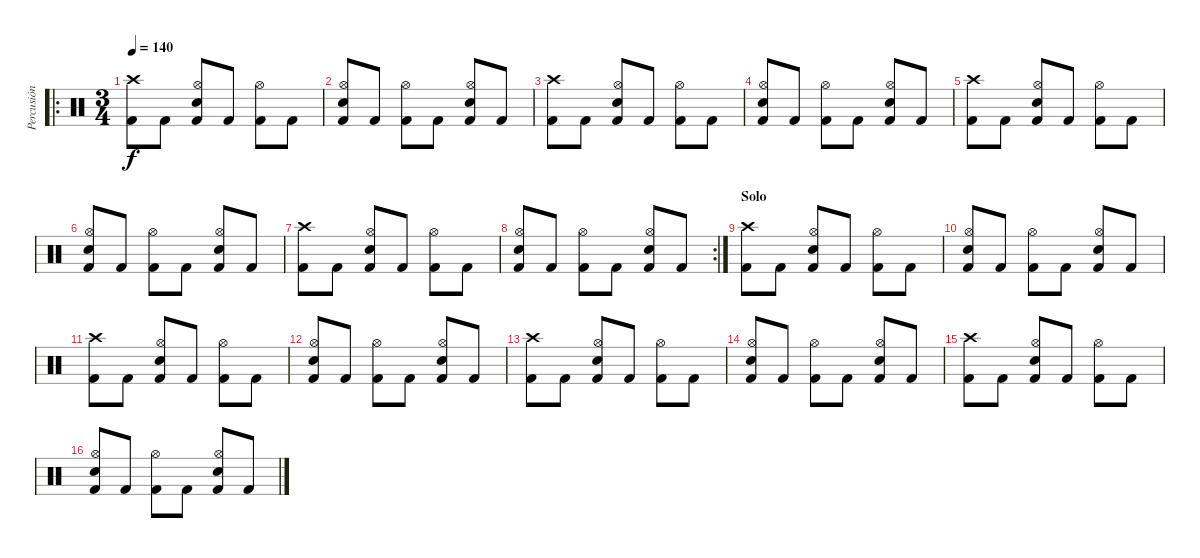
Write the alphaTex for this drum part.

\track ("Percusión" "Percusión") {instrument percussion}
\staff {score}
\articulation defaults
\ro
\ts (3 4)
\tempo 140
\clef neutral
\ks c
("Crash high (hit)" "Kick (hit) 2").8{dy f} "Kick (hit) 2".8 ("Hi-Hat (open)" "Snare (hit) 2" "Kick (hit) 2").8 "Kick (hit) 2".8 ("Hi-Hat (open)" "Kick (hit) 2").8 "Kick (hit) 2".8 |
("Hi-Hat (open)" "Snare (hit) 2" "Kick (hit) 2").8 "Kick (hit) 2".8 ("Hi-Hat (open)" "Kick (hit) 2").8 "Kick (hit) 2".8 ("Hi-Hat (open)" "Snare (hit) 2" "Kick (hit) 2").8 "Kick (hit) 2".8 |
("Crash high (hit)" "Kick (hit) 2").8 "Kick (hit) 2".8 ("Hi-Hat (open)" "Snare (hit) 2" "Kick (hit) 2").8 "Kick (hit) 2".8 ("Hi-Hat (open)" "Kick (hit) 2").8 "Kick (hit) 2".8 |
("Hi-Hat (open)" "Snare (hit) 2" "Kick (hit) 2").8 "Kick (hit) 2".8 ("Hi-Hat (open)" "Kick (hit) 2").8 "Kick (hit) 2".8 ("Hi-Hat (open)" "Snare (hit) 2" "Kick (hit) 2").8 "Kick (hit) 2".8 |
("Crash high (hit)" "Kick (hit) 2").8 "Kick (hit) 2".8 ("Hi-Hat (open)" "Snare (hit) 2" "Kick (hit) 2").8 "Kick (hit) 2".8 ("Hi-Hat (open)" "Kick (hit) 2").8 "Kick (hit) 2".8 |
("Hi-Hat (open)" "Snare (hit) 2" "Kick (hit) 2").8 "Kick (hit) 2".8 ("Hi-Hat (open)" "Kick (hit) 2").8 "Kick (hit) 2".8 ("Hi-Hat (open)" "Snare (hit) 2" "Kick (hit) 2").8 "Kick (hit) 2".8 |
("Crash high (hit)" "Kick (hit) 2").8 "Kick (hit) 2".8 ("Hi-Hat (open)" "Snare (hit) 2" "Kick (hit) 2").8 "Kick (hit) 2".8 ("Hi-Hat (open)" "Kick (hit) 2").8 "Kick (hit) 2".8 |
\rc 2
("Hi-Hat (open)" "Snare (hit) 2" "Kick (hit) 2").8 "Kick (hit) 2".8 ("Hi-Hat (open)" "Kick (hit) 2").8 "Kick (hit) 2".8 ("Hi-Hat (open)" "Snare (hit) 2" "Kick (hit) 2").8 "Kick (hit) 2".8 |
\section ("" "Solo")
("Crash high (hit)" "Kick (hit) 2").8 "Kick (hit) 2".8 ("Hi-Hat (open)" "Snare (hit) 2" "Kick (hit) 2").8 "Kick (hit) 2".8 ("Hi-Hat (open)" "Kick (hit) 2").8 "Kick (hit) 2".8 |
("Hi-Hat (open)" "Snare (hit) 2" "Kick (hit) 2").8 "Kick (hit) 2".8 ("Hi-Hat (open)" "Kick (hit) 2").8 "Kick (hit) 2".8 ("Hi-Hat (open)" "Snare (hit) 2" "Kick (hit) 2").8 "Kick (hit) 2".8 |
("Crash high (hit)" "Kick (hit) 2").8 "Kick (hit) 2".8 ("Hi-Hat (open)" "Snare (hit) 2" "Kick (hit) 2").8 "Kick (hit) 2".8 ("Hi-Hat (open)" "Kick (hit) 2").8 "Kick (hit) 2".8 |
("Hi-Hat (open)" "Snare (hit) 2" "Kick (hit) 2").8 "Kick (hit) 2".8 ("Hi-Hat (open)" "Kick (hit) 2").8 "Kick (hit) 2".8 ("Hi-Hat (open)" "Snare (hit) 2" "Kick (hit) 2").8 "Kick (hit) 2".8 |
("Crash high (hit)" "Kick (hit) 2").8 "Kick (hit) 2".8 ("Hi-Hat (open)" "Snare (hit) 2" "Kick (hit) 2").8 "Kick (hit) 2".8 ("Hi-Hat (open)" "Kick (hit) 2").8 "Kick (hit) 2".8 |
("Hi-Hat (open)" "Snare (hit) 2" "Kick (hit) 2").8 "Kick (hit) 2".8 ("Hi-Hat (open)" "Kick (hit) 2").8 "Kick (hit) 2".8 ("Hi-Hat (open)" "Snare (hit) 2" "Kick (hit) 2").8 "Kick (hit) 2".8 |
("Crash high (hit)" "Kick (hit) 2").8 "Kick (hit) 2".8 ("Hi-Hat (open)" "Snare (hit) 2" "Kick (hit) 2").8 "Kick (hit) 2".8 ("Hi-Hat (open)" "Kick (hit) 2").8 "Kick (hit) 2".8 |
("Hi-Hat (open)" "Snare (hit) 2" "Kick (hit) 2").8 "Kick (hit) 2".8 ("Hi-Hat (open)" "Kick (hit) 2").8 "Kick (hit) 2".8 ("Hi-Hat (open)" "Snare (hit) 2" "Kick (hit) 2").8 "Kick (hit) 2".8
